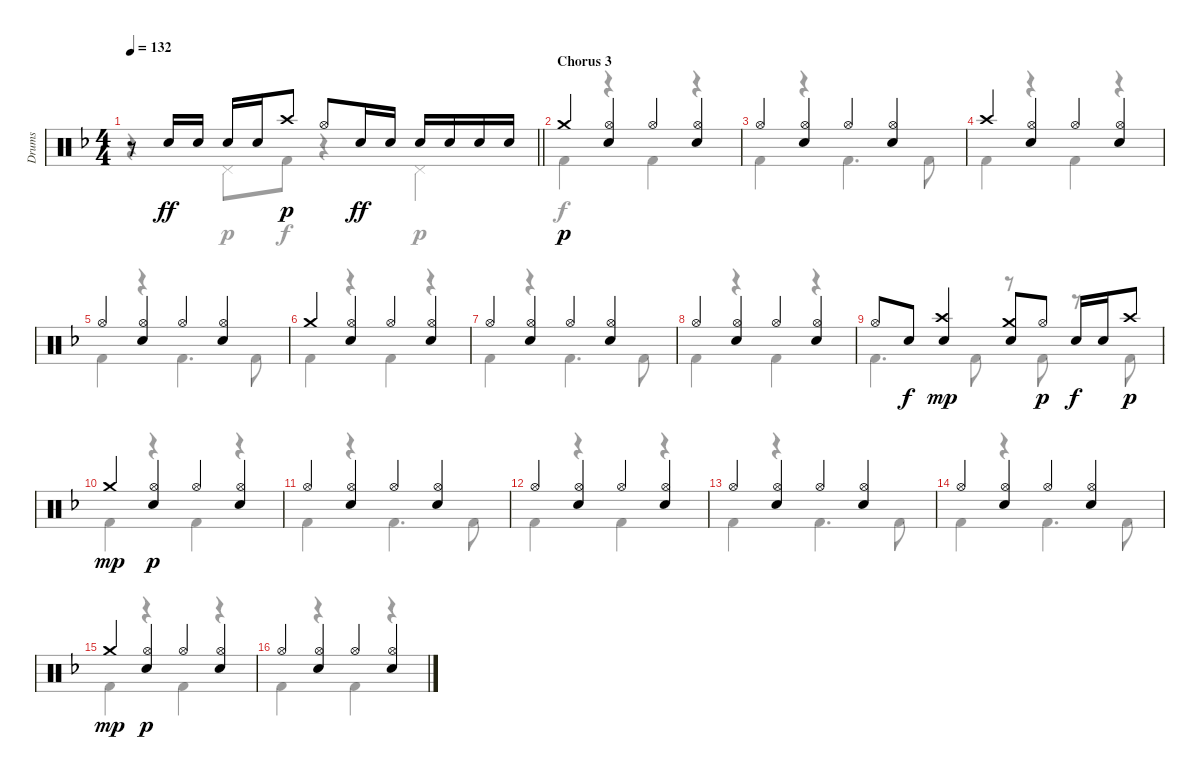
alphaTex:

\track ("Drums" "Drums") {instrument percussion}
\staff {score}
\articulation defaults
\voice
\ts (4 4)
\tempo 132
\clef neutral
\barLineRight lightlight
\ks f
r.8{dy p} "Electric Snare (hit)".16{dy ff} "Electric Snare (hit)".16 "Electric Snare (hit)".16 "Electric Snare (hit)".16 "Crash high (hit)".8{dy p} "Hi-Hat (open)".8 "Electric Snare (hit)".16{dy ff} "Electric Snare (hit)".16 "Electric Snare (hit)".16 "Electric Snare (hit)".16 "Electric Snare (hit)".16 "Electric Snare (hit)".16 |
\section ("" "Chorus 3")
"Crash medium (hit)".4{dy p} ("Hi-Hat (open)" "Electric Snare (hit)").4 "Hi-Hat (open)".4 ("Hi-Hat (open)" "Electric Snare (hit)").4 |
"Hi-Hat (open)".4 ("Hi-Hat (open)" "Electric Snare (hit)").4 "Hi-Hat (open)".4 ("Hi-Hat (open)" "Electric Snare (hit)").4 |
"Crash high (hit)".4 ("Hi-Hat (open)" "Electric Snare (hit)").4 "Hi-Hat (open)".4 ("Hi-Hat (open)" "Electric Snare (hit)").4 |
"Hi-Hat (open)".4 ("Hi-Hat (open)" "Electric Snare (hit)").4 "Hi-Hat (open)".4 ("Hi-Hat (open)" "Electric Snare (hit)").4 |
"Crash medium (hit)".4 ("Hi-Hat (open)" "Electric Snare (hit)").4 "Hi-Hat (open)".4 ("Hi-Hat (open)" "Electric Snare (hit)").4 |
"Hi-Hat (open)".4 ("Hi-Hat (open)" "Electric Snare (hit)").4 "Hi-Hat (open)".4 ("Hi-Hat (open)" "Electric Snare (hit)").4 |
"Hi-Hat (open)".4 ("Hi-Hat (open)" "Electric Snare (hit)").4 "Hi-Hat (open)".4 ("Hi-Hat (open)" "Electric Snare (hit)").4 |
"Hi-Hat (open)".8 "Electric Snare (hit)".8{dy f} ("Crash high (hit)" "Electric Snare (hit)").4{dy mp} ("Crash medium (hit)" "Electric Snare (hit)").8 "Hi-Hat (open)".8{dy p} "Electric Snare (hit)".16{dy f} "Electric Snare (hit)".16 "Crash high (hit)".8{dy p} |
"Crash medium (hit)".4{dy mp} ("Hi-Hat (open)" "Electric Snare (hit)").4{dy p} "Hi-Hat (open)".4 ("Hi-Hat (open)" "Electric Snare (hit)").4 |
"Hi-Hat (open)".4 ("Hi-Hat (open)" "Electric Snare (hit)").4 "Hi-Hat (open)".4 ("Hi-Hat (open)" "Electric Snare (hit)").4 |
"Hi-Hat (open)".4 ("Hi-Hat (open)" "Electric Snare (hit)").4 "Hi-Hat (open)".4 ("Hi-Hat (open)" "Electric Snare (hit)").4 |
"Hi-Hat (open)".4 ("Hi-Hat (open)" "Electric Snare (hit)").4 "Hi-Hat (open)".4 ("Hi-Hat (open)" "Electric Snare (hit)").4 |
"Hi-Hat (open)".4 ("Hi-Hat (open)" "Electric Snare (hit)").4 "Hi-Hat (open)".4 ("Hi-Hat (open)" "Electric Snare (hit)").4 |
"Crash medium (hit)".4{dy mp} ("Hi-Hat (open)" "Electric Snare (hit)").4{dy p} "Hi-Hat (open)".4 ("Hi-Hat (open)" "Electric Snare (hit)").4 |
"Hi-Hat (open)".4 ("Hi-Hat (open)" "Electric Snare (hit)").4 "Hi-Hat (open)".4 ("Hi-Hat (open)" "Electric Snare (hit)").4
\voice
\clef neutral
\ottava regular
\simile none
\barLineRight lightlight
\ks f
r.4{dy f} "Pedal Hi-Hat (hit)".8{dy p} "Kick (hit) 2".8{dy f} r.4 "Pedal Hi-Hat (hit)".4{dy p} |
"Kick (hit) 2".4{dy f} r.4 "Kick (hit) 2".4 r.4 |
"Kick (hit) 2".4 r.4 "Kick (hit) 2".4{d} "Kick (hit) 2".8 |
"Kick (hit) 2".4 r.4 "Kick (hit) 2".4 r.4 |
"Kick (hit) 2".4 r.4 "Kick (hit) 2".4{d} "Kick (hit) 2".8 |
"Kick (hit) 2".4 r.4 "Kick (hit) 2".4 r.4 |
"Kick (hit) 2".4 r.4 "Kick (hit) 2".4{d} "Kick (hit) 2".8 |
"Kick (hit) 2".4 r.4 "Kick (hit) 2".4 r.4 |
"Kick (hit) 2".4{d} "Kick (hit) 2".8 r.8 "Kick (hit) 2".8 r.8 "Kick (hit) 2".8 |
"Kick (hit) 2".4 r.4 "Kick (hit) 2".4 r.4 |
"Kick (hit) 2".4 r.4 "Kick (hit) 2".4{d} "Kick (hit) 2".8 |
"Kick (hit) 2".4 r.4 "Kick (hit) 2".4 r.4 |
"Kick (hit) 2".4 r.4 "Kick (hit) 2".4{d} "Kick (hit) 2".8 |
"Kick (hit) 2".4 r.4 "Kick (hit) 2".4{d} "Kick (hit) 2".8 |
"Kick (hit) 2".4 r.4 "Kick (hit) 2".4 r.4 |
"Kick (hit) 2".4 r.4 "Kick (hit) 2".4 r.4
